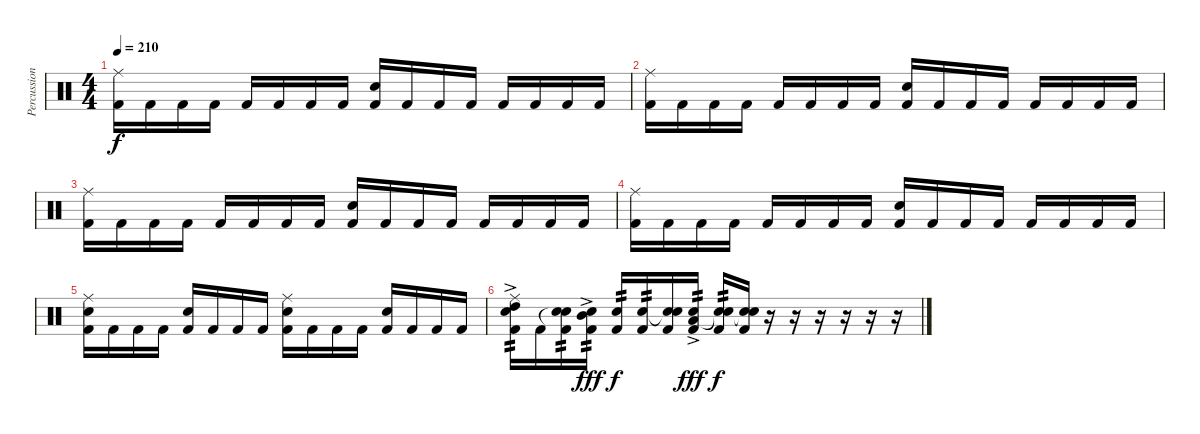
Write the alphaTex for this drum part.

\track ("Percussions" "Percussion") {instrument percussion}
\staff {score}
\articulation defaults
\ts (4 4)
\tempo 210
\clef neutral
\ks c
("Ride (middle)" "Kick (hit) 2").16{dy f} "Kick (hit) 2".16 "Kick (hit) 2".16 "Kick (hit) 2".16 "Kick (hit) 2".16 "Kick (hit) 2".16 "Kick (hit) 2".16 "Kick (hit) 2".16 ("Snare (hit) 2" "Kick (hit) 2").16 "Kick (hit) 2".16 "Kick (hit) 2".16 "Kick (hit) 2".16 "Kick (hit) 2".16 "Kick (hit) 2".16 "Kick (hit) 2".16 "Kick (hit) 2".16 |
("Ride (middle)" "Kick (hit) 2").16 "Kick (hit) 2".16 "Kick (hit) 2".16 "Kick (hit) 2".16 "Kick (hit) 2".16 "Kick (hit) 2".16 "Kick (hit) 2".16 "Kick (hit) 2".16 ("Snare (hit) 2" "Kick (hit) 2").16 "Kick (hit) 2".16 "Kick (hit) 2".16 "Kick (hit) 2".16 "Kick (hit) 2".16 "Kick (hit) 2".16 "Kick (hit) 2".16 "Kick (hit) 2".16 |
("Ride (middle)" "Kick (hit) 2").16 "Kick (hit) 2".16 "Kick (hit) 2".16 "Kick (hit) 2".16 "Kick (hit) 2".16 "Kick (hit) 2".16 "Kick (hit) 2".16 "Kick (hit) 2".16 ("Snare (hit) 2" "Kick (hit) 2").16 "Kick (hit) 2".16 "Kick (hit) 2".16 "Kick (hit) 2".16 "Kick (hit) 2".16 "Kick (hit) 2".16 "Kick (hit) 2".16 "Kick (hit) 2".16 |
("Ride (middle)" "Kick (hit) 2").16 "Kick (hit) 2".16 "Kick (hit) 2".16 "Kick (hit) 2".16 "Kick (hit) 2".16 "Kick (hit) 2".16 "Kick (hit) 2".16 "Kick (hit) 2".16 ("Snare (hit) 2" "Kick (hit) 2").16 "Kick (hit) 2".16 "Kick (hit) 2".16 "Kick (hit) 2".16 "Kick (hit) 2".16 "Kick (hit) 2".16 "Kick (hit) 2".16 "Kick (hit) 2".16 |
("Snare (hit) 2" "Ride (middle)" "Kick (hit) 2").16 "Kick (hit) 2".16 "Kick (hit) 2".16 "Kick (hit) 2".16 ("Snare (hit) 2" "Kick (hit) 2").16 "Kick (hit) 2".16 "Kick (hit) 2".16 "Kick (hit) 2".16 ("Snare (hit) 2" "Ride (middle)" "Kick (hit) 2").16 "Kick (hit) 2".16 "Kick (hit) 2".16 "Kick (hit) 2".16 ("Snare (hit) 2" "Kick (hit) 2").16 "Kick (hit) 2".16 "Kick (hit) 2".16 "Kick (hit) 2".16 |
("High Tom (hit)"{ac} "Snare (hit) 2" "Ride (middle)" "Kick (hit) 2").16{tp 2} "Kick (hit) 2".16 ("Snare (hit)"{t} "Snare (hit) 2" "Kick (hit) 2").16{tp 2} ("Mid Tom (hit)"{ac} "Snare (hit) 2" "Kick (hit) 2").16{tp 2 dy fff} ("Snare (hit) 2" "Kick (hit) 2").16{tp 2 dy f} ("Snare (hit) 2" "Kick (hit) 2").16{tp 2} ("Snare (hit)"{t} "Snare (hit) 2" "Kick (hit) 2").16 ("Low Tom (hit)"{ac} "Snare (hit) 2" "Kick (hit) 2").16{tp 2 dy fff} ("Snare (hit)"{t} "Snare (hit) 2" "Kick (hit) 2").16{tp 2 dy f} ("Snare (hit)"{t} "Snare (hit) 2" "Kick (hit) 2").16 r.16 r.16 r.16 r.16 r.16 r.16
